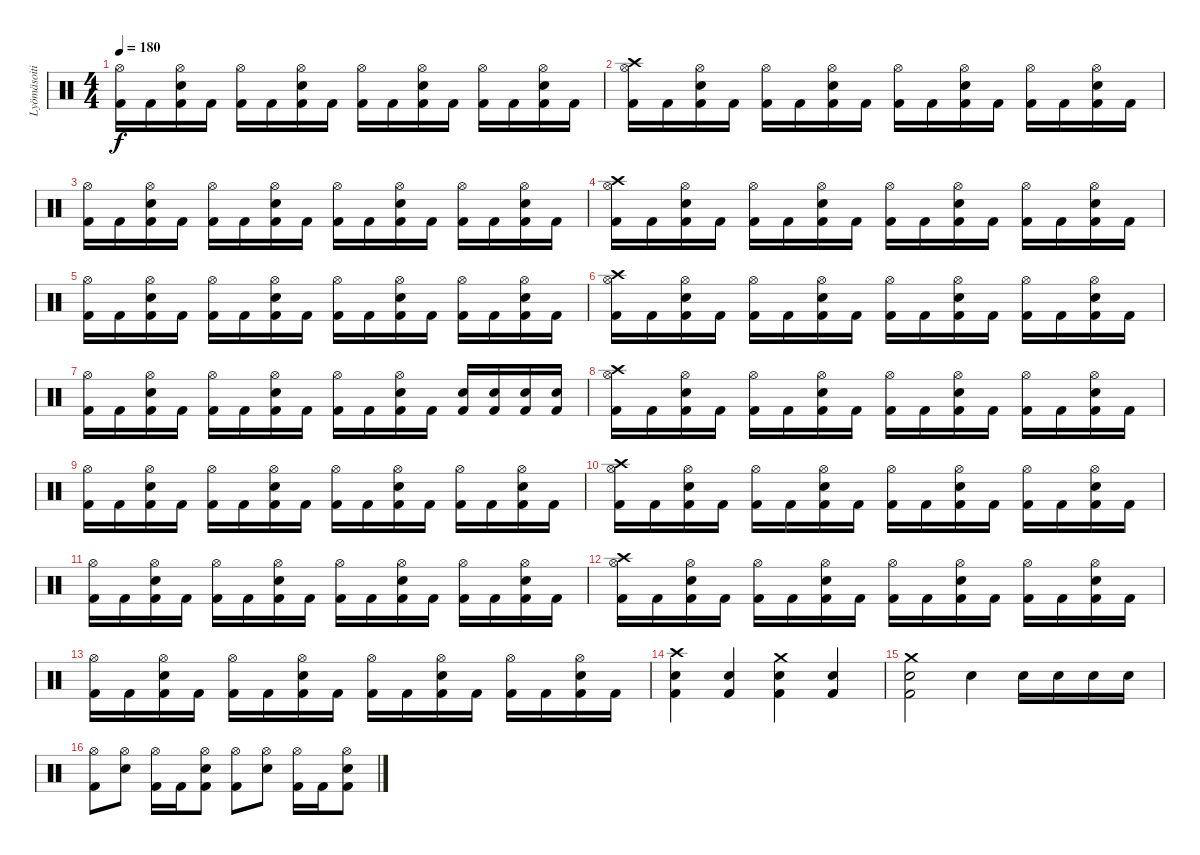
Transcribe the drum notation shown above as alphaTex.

\track ("Lyömäsoitin" "Lyömäsoiti") {instrument percussion}
\staff {score}
\articulation defaults
\ts (4 4)
\tempo 180
\clef neutral
\ks c
("Kick (hit) 2" "Hi-Hat (open)").16{dy f} "Kick (hit) 2".16 ("Kick (hit) 2" "Snare (hit) 2" "Hi-Hat (open)").16 "Kick (hit) 2".16 ("Kick (hit) 2" "Hi-Hat (open)").16 "Kick (hit) 2".16 ("Kick (hit) 2" "Snare (hit) 2" "Hi-Hat (open)").16 "Kick (hit) 2".16 ("Kick (hit) 2" "Hi-Hat (open)").16 "Kick (hit) 2".16 ("Kick (hit) 2" "Snare (hit) 2" "Hi-Hat (open)").16 "Kick (hit) 2".16 ("Kick (hit) 2" "Hi-Hat (open)").16 "Kick (hit) 2".16 ("Kick (hit) 2" "Snare (hit) 2" "Hi-Hat (open)").16 "Kick (hit) 2".16 |
("Kick (hit) 2" "Crash high (hit)" "Hi-Hat (open)").16 "Kick (hit) 2".16 ("Kick (hit) 2" "Snare (hit) 2" "Hi-Hat (open)").16 "Kick (hit) 2".16 ("Kick (hit) 2" "Hi-Hat (open)").16 "Kick (hit) 2".16 ("Kick (hit) 2" "Snare (hit) 2" "Hi-Hat (open)").16 "Kick (hit) 2".16 ("Kick (hit) 2" "Hi-Hat (open)").16 "Kick (hit) 2".16 ("Kick (hit) 2" "Snare (hit) 2" "Hi-Hat (open)").16 "Kick (hit) 2".16 ("Kick (hit) 2" "Hi-Hat (open)").16 "Kick (hit) 2".16 ("Kick (hit) 2" "Snare (hit) 2" "Hi-Hat (open)").16 "Kick (hit) 2".16 |
("Kick (hit) 2" "Hi-Hat (open)").16 "Kick (hit) 2".16 ("Kick (hit) 2" "Snare (hit) 2" "Hi-Hat (open)").16 "Kick (hit) 2".16 ("Kick (hit) 2" "Hi-Hat (open)").16 "Kick (hit) 2".16 ("Kick (hit) 2" "Snare (hit) 2" "Hi-Hat (open)").16 "Kick (hit) 2".16 ("Kick (hit) 2" "Hi-Hat (open)").16 "Kick (hit) 2".16 ("Kick (hit) 2" "Snare (hit) 2" "Hi-Hat (open)").16 "Kick (hit) 2".16 ("Kick (hit) 2" "Hi-Hat (open)").16 "Kick (hit) 2".16 ("Kick (hit) 2" "Snare (hit) 2" "Hi-Hat (open)").16 "Kick (hit) 2".16 |
("Kick (hit) 2" "Crash high (hit)" "Hi-Hat (open)").16 "Kick (hit) 2".16 ("Kick (hit) 2" "Snare (hit) 2" "Hi-Hat (open)").16 "Kick (hit) 2".16 ("Kick (hit) 2" "Hi-Hat (open)").16 "Kick (hit) 2".16 ("Kick (hit) 2" "Snare (hit) 2" "Hi-Hat (open)").16 "Kick (hit) 2".16 ("Kick (hit) 2" "Hi-Hat (open)").16 "Kick (hit) 2".16 ("Kick (hit) 2" "Snare (hit) 2" "Hi-Hat (open)").16 "Kick (hit) 2".16 ("Kick (hit) 2" "Hi-Hat (open)").16 "Kick (hit) 2".16 ("Kick (hit) 2" "Snare (hit) 2" "Hi-Hat (open)").16 "Kick (hit) 2".16 |
("Kick (hit) 2" "Hi-Hat (open)").16 "Kick (hit) 2".16 ("Kick (hit) 2" "Snare (hit) 2" "Hi-Hat (open)").16 "Kick (hit) 2".16 ("Kick (hit) 2" "Hi-Hat (open)").16 "Kick (hit) 2".16 ("Kick (hit) 2" "Snare (hit) 2" "Hi-Hat (open)").16 "Kick (hit) 2".16 ("Kick (hit) 2" "Hi-Hat (open)").16 "Kick (hit) 2".16 ("Kick (hit) 2" "Snare (hit) 2" "Hi-Hat (open)").16 "Kick (hit) 2".16 ("Kick (hit) 2" "Hi-Hat (open)").16 "Kick (hit) 2".16 ("Kick (hit) 2" "Snare (hit) 2" "Hi-Hat (open)").16 "Kick (hit) 2".16 |
("Kick (hit) 2" "Crash high (hit)" "Hi-Hat (open)").16 "Kick (hit) 2".16 ("Kick (hit) 2" "Snare (hit) 2" "Hi-Hat (open)").16 "Kick (hit) 2".16 ("Kick (hit) 2" "Hi-Hat (open)").16 "Kick (hit) 2".16 ("Kick (hit) 2" "Snare (hit) 2" "Hi-Hat (open)").16 "Kick (hit) 2".16 ("Kick (hit) 2" "Hi-Hat (open)").16 "Kick (hit) 2".16 ("Kick (hit) 2" "Snare (hit) 2" "Hi-Hat (open)").16 "Kick (hit) 2".16 ("Kick (hit) 2" "Hi-Hat (open)").16 "Kick (hit) 2".16 ("Kick (hit) 2" "Snare (hit) 2" "Hi-Hat (open)").16 "Kick (hit) 2".16 |
("Kick (hit) 2" "Hi-Hat (open)").16 "Kick (hit) 2".16 ("Kick (hit) 2" "Snare (hit) 2" "Hi-Hat (open)").16 "Kick (hit) 2".16 ("Kick (hit) 2" "Hi-Hat (open)").16 "Kick (hit) 2".16 ("Kick (hit) 2" "Snare (hit) 2" "Hi-Hat (open)").16 "Kick (hit) 2".16 ("Kick (hit) 2" "Hi-Hat (open)").16 "Kick (hit) 2".16 ("Kick (hit) 2" "Snare (hit) 2" "Hi-Hat (open)").16 "Kick (hit) 2".16 ("Kick (hit) 2" "Snare (hit) 2").16 ("Kick (hit) 2" "Snare (hit) 2").16 ("Kick (hit) 2" "Snare (hit) 2").16 ("Kick (hit) 2" "Snare (hit) 2").16 |
("Kick (hit) 2" "Crash high (hit)" "Hi-Hat (open)").16 "Kick (hit) 2".16 ("Kick (hit) 2" "Snare (hit) 2" "Hi-Hat (open)").16 "Kick (hit) 2".16 ("Kick (hit) 2" "Hi-Hat (open)").16 "Kick (hit) 2".16 ("Kick (hit) 2" "Snare (hit) 2" "Hi-Hat (open)").16 "Kick (hit) 2".16 ("Kick (hit) 2" "Hi-Hat (open)").16 "Kick (hit) 2".16 ("Kick (hit) 2" "Snare (hit) 2" "Hi-Hat (open)").16 "Kick (hit) 2".16 ("Kick (hit) 2" "Hi-Hat (open)").16 "Kick (hit) 2".16 ("Kick (hit) 2" "Snare (hit) 2" "Hi-Hat (open)").16 "Kick (hit) 2".16 |
("Kick (hit) 2" "Hi-Hat (open)").16 "Kick (hit) 2".16 ("Kick (hit) 2" "Snare (hit) 2" "Hi-Hat (open)").16 "Kick (hit) 2".16 ("Kick (hit) 2" "Hi-Hat (open)").16 "Kick (hit) 2".16 ("Kick (hit) 2" "Snare (hit) 2" "Hi-Hat (open)").16 "Kick (hit) 2".16 ("Kick (hit) 2" "Hi-Hat (open)").16 "Kick (hit) 2".16 ("Kick (hit) 2" "Snare (hit) 2" "Hi-Hat (open)").16 "Kick (hit) 2".16 ("Kick (hit) 2" "Hi-Hat (open)").16 "Kick (hit) 2".16 ("Kick (hit) 2" "Snare (hit) 2" "Hi-Hat (open)").16 "Kick (hit) 2".16 |
("Kick (hit) 2" "Crash high (hit)" "Hi-Hat (open)").16 "Kick (hit) 2".16 ("Kick (hit) 2" "Snare (hit) 2" "Hi-Hat (open)").16 "Kick (hit) 2".16 ("Kick (hit) 2" "Hi-Hat (open)").16 "Kick (hit) 2".16 ("Kick (hit) 2" "Snare (hit) 2" "Hi-Hat (open)").16 "Kick (hit) 2".16 ("Kick (hit) 2" "Hi-Hat (open)").16 "Kick (hit) 2".16 ("Kick (hit) 2" "Snare (hit) 2" "Hi-Hat (open)").16 "Kick (hit) 2".16 ("Kick (hit) 2" "Hi-Hat (open)").16 "Kick (hit) 2".16 ("Kick (hit) 2" "Snare (hit) 2" "Hi-Hat (open)").16 "Kick (hit) 2".16 |
("Kick (hit) 2" "Hi-Hat (open)").16 "Kick (hit) 2".16 ("Kick (hit) 2" "Snare (hit) 2" "Hi-Hat (open)").16 "Kick (hit) 2".16 ("Kick (hit) 2" "Hi-Hat (open)").16 "Kick (hit) 2".16 ("Kick (hit) 2" "Snare (hit) 2" "Hi-Hat (open)").16 "Kick (hit) 2".16 ("Kick (hit) 2" "Hi-Hat (open)").16 "Kick (hit) 2".16 ("Kick (hit) 2" "Snare (hit) 2" "Hi-Hat (open)").16 "Kick (hit) 2".16 ("Kick (hit) 2" "Hi-Hat (open)").16 "Kick (hit) 2".16 ("Kick (hit) 2" "Snare (hit) 2" "Hi-Hat (open)").16 "Kick (hit) 2".16 |
("Kick (hit) 2" "Crash high (hit)" "Hi-Hat (open)").16 "Kick (hit) 2".16 ("Kick (hit) 2" "Snare (hit) 2" "Hi-Hat (open)").16 "Kick (hit) 2".16 ("Kick (hit) 2" "Hi-Hat (open)").16 "Kick (hit) 2".16 ("Kick (hit) 2" "Snare (hit) 2" "Hi-Hat (open)").16 "Kick (hit) 2".16 ("Kick (hit) 2" "Hi-Hat (open)").16 "Kick (hit) 2".16 ("Kick (hit) 2" "Snare (hit) 2" "Hi-Hat (open)").16 "Kick (hit) 2".16 ("Kick (hit) 2" "Hi-Hat (open)").16 "Kick (hit) 2".16 ("Kick (hit) 2" "Snare (hit) 2" "Hi-Hat (open)").16 "Kick (hit) 2".16 |
("Kick (hit) 2" "Hi-Hat (open)").16 "Kick (hit) 2".16 ("Kick (hit) 2" "Snare (hit) 2" "Hi-Hat (open)").16 "Kick (hit) 2".16 ("Kick (hit) 2" "Hi-Hat (open)").16 "Kick (hit) 2".16 ("Kick (hit) 2" "Snare (hit) 2" "Hi-Hat (open)").16 "Kick (hit) 2".16 ("Kick (hit) 2" "Hi-Hat (open)").16 "Kick (hit) 2".16 ("Kick (hit) 2" "Snare (hit) 2" "Hi-Hat (open)").16 "Kick (hit) 2".16 ("Kick (hit) 2" "Hi-Hat (open)").16 "Kick (hit) 2".16 ("Kick (hit) 2" "Snare (hit) 2" "Hi-Hat (open)").16 "Kick (hit) 2".16 |
("Kick (hit) 2" "Snare (hit) 2" "Crash high (hit)").4 ("Kick (hit) 2" "Snare (hit) 2").4 ("Kick (hit) 2" "Snare (hit) 2" "Crash medium (hit)").4 ("Kick (hit) 2" "Snare (hit) 2").4 |
("Kick (hit) 2" "Snare (hit) 2" "Crash medium (hit)").2 "Electric Snare (hit)".4 "Snare (hit) 2".16 "Snare (hit) 2".16 "Snare (hit) 2".16 "Snare (hit) 2".16 |
("Kick (hit) 2" "Hi-Hat (open)").8 ("Snare (hit) 2" "Hi-Hat (open)").8 ("Kick (hit) 2" "Hi-Hat (open)").16 "Kick (hit) 2".16 ("Kick (hit) 2" "Snare (hit) 2" "Hi-Hat (open)").8 ("Kick (hit) 2" "Hi-Hat (open)").8 ("Snare (hit) 2" "Hi-Hat (open)").8 ("Kick (hit) 2" "Hi-Hat (open)").16 "Kick (hit) 2".16 ("Kick (hit) 2" "Snare (hit) 2" "Hi-Hat (open)").8
